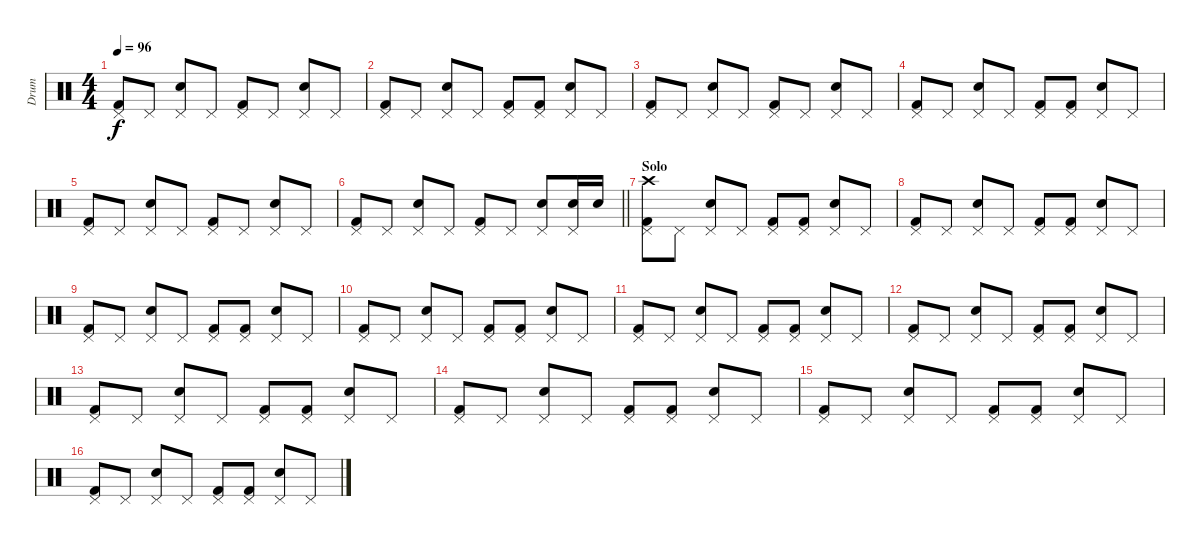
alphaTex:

\track ("Drum" "Drum") {instrument percussion}
\staff {score}
\articulation defaults
\ts (4 4)
\tempo 96
\clef neutral
\ks c
("Pedal Hi-Hat (hit)" "Kick (hit) 2").8{dy f} "Pedal Hi-Hat (hit)".8 ("Pedal Hi-Hat (hit)" "Snare (hit) 2").8 "Pedal Hi-Hat (hit)".8 ("Pedal Hi-Hat (hit)" "Kick (hit) 2").8 "Pedal Hi-Hat (hit)".8 ("Pedal Hi-Hat (hit)" "Snare (hit) 2").8 "Pedal Hi-Hat (hit)".8 |
("Pedal Hi-Hat (hit)" "Kick (hit) 2").8 "Pedal Hi-Hat (hit)".8 ("Pedal Hi-Hat (hit)" "Snare (hit) 2").8 "Pedal Hi-Hat (hit)".8 ("Pedal Hi-Hat (hit)" "Kick (hit) 2").8 ("Pedal Hi-Hat (hit)" "Kick (hit) 2").8 ("Pedal Hi-Hat (hit)" "Snare (hit) 2").8 "Pedal Hi-Hat (hit)".8 |
("Pedal Hi-Hat (hit)" "Kick (hit) 2").8 "Pedal Hi-Hat (hit)".8 ("Pedal Hi-Hat (hit)" "Snare (hit) 2").8 "Pedal Hi-Hat (hit)".8 ("Pedal Hi-Hat (hit)" "Kick (hit) 2").8 "Pedal Hi-Hat (hit)".8 ("Pedal Hi-Hat (hit)" "Snare (hit) 2").8 "Pedal Hi-Hat (hit)".8 |
("Pedal Hi-Hat (hit)" "Kick (hit) 2").8 "Pedal Hi-Hat (hit)".8 ("Pedal Hi-Hat (hit)" "Snare (hit) 2").8 "Pedal Hi-Hat (hit)".8 ("Pedal Hi-Hat (hit)" "Kick (hit) 2").8 ("Pedal Hi-Hat (hit)" "Kick (hit) 2").8 ("Pedal Hi-Hat (hit)" "Snare (hit) 2").8 "Pedal Hi-Hat (hit)".8 |
("Pedal Hi-Hat (hit)" "Kick (hit) 2").8 "Pedal Hi-Hat (hit)".8 ("Pedal Hi-Hat (hit)" "Snare (hit) 2").8 "Pedal Hi-Hat (hit)".8 ("Pedal Hi-Hat (hit)" "Kick (hit) 2").8 "Pedal Hi-Hat (hit)".8 ("Pedal Hi-Hat (hit)" "Snare (hit) 2").8 "Pedal Hi-Hat (hit)".8 |
\barLineRight lightlight
("Pedal Hi-Hat (hit)" "Kick (hit) 2").8 "Pedal Hi-Hat (hit)".8 ("Pedal Hi-Hat (hit)" "Snare (hit) 2").8 "Pedal Hi-Hat (hit)".8 ("Pedal Hi-Hat (hit)" "Kick (hit) 2").8 "Pedal Hi-Hat (hit)".8 ("Pedal Hi-Hat (hit)" "Snare (hit) 2").8 ("Pedal Hi-Hat (hit)" "Snare (hit) 2").16 "Snare (hit) 2".16 |
\section ("" "Solo")
("Pedal Hi-Hat (hit)" "Crash high (hit)" "Kick (hit) 2").8 "Pedal Hi-Hat (hit)".8 ("Pedal Hi-Hat (hit)" "Snare (hit) 2").8 "Pedal Hi-Hat (hit)".8 ("Pedal Hi-Hat (hit)" "Kick (hit) 2").8 ("Pedal Hi-Hat (hit)" "Kick (hit) 2").8 ("Pedal Hi-Hat (hit)" "Snare (hit) 2").8 "Pedal Hi-Hat (hit)".8 |
("Pedal Hi-Hat (hit)" "Kick (hit) 2").8 "Pedal Hi-Hat (hit)".8 ("Pedal Hi-Hat (hit)" "Snare (hit) 2").8 "Pedal Hi-Hat (hit)".8 ("Pedal Hi-Hat (hit)" "Kick (hit) 2").8 ("Pedal Hi-Hat (hit)" "Kick (hit) 2").8 ("Pedal Hi-Hat (hit)" "Snare (hit) 2").8 "Pedal Hi-Hat (hit)".8 |
("Pedal Hi-Hat (hit)" "Kick (hit) 2").8 "Pedal Hi-Hat (hit)".8 ("Pedal Hi-Hat (hit)" "Snare (hit) 2").8 "Pedal Hi-Hat (hit)".8 ("Pedal Hi-Hat (hit)" "Kick (hit) 2").8 ("Pedal Hi-Hat (hit)" "Kick (hit) 2").8 ("Pedal Hi-Hat (hit)" "Snare (hit) 2").8 "Pedal Hi-Hat (hit)".8 |
("Pedal Hi-Hat (hit)" "Kick (hit) 2").8 "Pedal Hi-Hat (hit)".8 ("Pedal Hi-Hat (hit)" "Snare (hit) 2").8 "Pedal Hi-Hat (hit)".8 ("Pedal Hi-Hat (hit)" "Kick (hit) 2").8 ("Pedal Hi-Hat (hit)" "Kick (hit) 2").8 ("Pedal Hi-Hat (hit)" "Snare (hit) 2").8 "Pedal Hi-Hat (hit)".8 |
("Pedal Hi-Hat (hit)" "Kick (hit) 2").8 "Pedal Hi-Hat (hit)".8 ("Pedal Hi-Hat (hit)" "Snare (hit) 2").8 "Pedal Hi-Hat (hit)".8 ("Pedal Hi-Hat (hit)" "Kick (hit) 2").8 ("Pedal Hi-Hat (hit)" "Kick (hit) 2").8 ("Pedal Hi-Hat (hit)" "Snare (hit) 2").8 "Pedal Hi-Hat (hit)".8 |
("Pedal Hi-Hat (hit)" "Kick (hit) 2").8 "Pedal Hi-Hat (hit)".8 ("Pedal Hi-Hat (hit)" "Snare (hit) 2").8 "Pedal Hi-Hat (hit)".8 ("Pedal Hi-Hat (hit)" "Kick (hit) 2").8 ("Pedal Hi-Hat (hit)" "Kick (hit) 2").8 ("Pedal Hi-Hat (hit)" "Snare (hit) 2").8 "Pedal Hi-Hat (hit)".8 |
("Pedal Hi-Hat (hit)" "Kick (hit) 2").8 "Pedal Hi-Hat (hit)".8 ("Pedal Hi-Hat (hit)" "Snare (hit) 2").8 "Pedal Hi-Hat (hit)".8 ("Pedal Hi-Hat (hit)" "Kick (hit) 2").8 ("Pedal Hi-Hat (hit)" "Kick (hit) 2").8 ("Pedal Hi-Hat (hit)" "Snare (hit) 2").8 "Pedal Hi-Hat (hit)".8 |
("Pedal Hi-Hat (hit)" "Kick (hit) 2").8 "Pedal Hi-Hat (hit)".8 ("Pedal Hi-Hat (hit)" "Snare (hit) 2").8 "Pedal Hi-Hat (hit)".8 ("Pedal Hi-Hat (hit)" "Kick (hit) 2").8 ("Pedal Hi-Hat (hit)" "Kick (hit) 2").8 ("Pedal Hi-Hat (hit)" "Snare (hit) 2").8 "Pedal Hi-Hat (hit)".8 |
("Pedal Hi-Hat (hit)" "Kick (hit) 2").8 "Pedal Hi-Hat (hit)".8 ("Pedal Hi-Hat (hit)" "Snare (hit) 2").8 "Pedal Hi-Hat (hit)".8 ("Pedal Hi-Hat (hit)" "Kick (hit) 2").8 ("Pedal Hi-Hat (hit)" "Kick (hit) 2").8 ("Pedal Hi-Hat (hit)" "Snare (hit) 2").8 "Pedal Hi-Hat (hit)".8 |
("Pedal Hi-Hat (hit)" "Kick (hit) 2").8 "Pedal Hi-Hat (hit)".8 ("Pedal Hi-Hat (hit)" "Snare (hit) 2").8 "Pedal Hi-Hat (hit)".8 ("Pedal Hi-Hat (hit)" "Kick (hit) 2").8 ("Pedal Hi-Hat (hit)" "Kick (hit) 2").8 ("Pedal Hi-Hat (hit)" "Snare (hit) 2").8 "Pedal Hi-Hat (hit)".8
